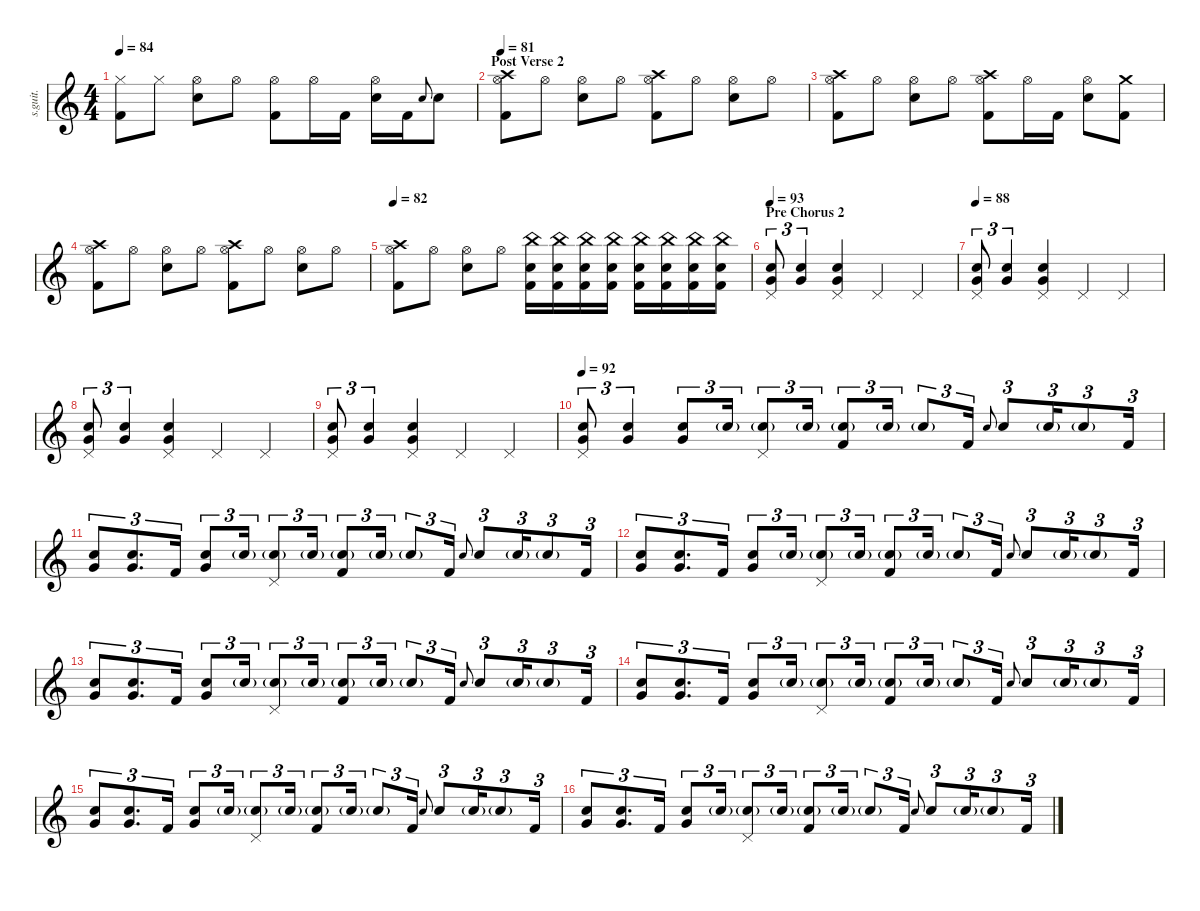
\defaultSystemsLayout 4
\hideDynamics
\bracketExtendMode nobrackets
\track ("Brad Wilk - Drums" "s.guit.") {instrument percussion}
\staff {score}
\articulation defaults
\ts (4 4)
\tempo 84
\clef g2
\ks c
("Hi-Hat (closed)" "Kick (hit) 2").8{lyrics (0 "") lyrics (1 "") lyrics (2 "") lyrics (3 "") lyrics (4 "") dy f} "Hi-Hat (closed)".8{lyrics (0 "") lyrics (1 "") lyrics (2 "") lyrics (3 "") lyrics (4 "")} ("Hi-Hat (open)" "Snare (hit) 2").8{lyrics (0 "") lyrics (1 "") lyrics (2 "") lyrics (3 "") lyrics (4 "")} "Hi-Hat (open)".8{lyrics (0 "") lyrics (1 "") lyrics (2 "") lyrics (3 "") lyrics (4 "")} ("Hi-Hat (open)" "Kick (hit) 2").8{lyrics (0 "") lyrics (1 "") lyrics (2 "") lyrics (3 "") lyrics (4 "")} "Hi-Hat (open)".16{lyrics (0 "") lyrics (1 "") lyrics (2 "") lyrics (3 "") lyrics (4 "")} "Kick (hit) 2".16{lyrics (0 "") lyrics (1 "") lyrics (2 "") lyrics (3 "") lyrics (4 "")} ("Hi-Hat (open)" "Snare (hit) 2").16{lyrics (0 "") lyrics (1 "") lyrics (2 "") lyrics (3 "") lyrics (4 "")} "Kick (hit) 2".16{lyrics (0 "") lyrics (1 "") lyrics (2 "") lyrics (3 "") lyrics (4 "")} "Snare (hit) 2".8{lyrics (0 "") lyrics (1 "") lyrics (2 "") lyrics (3 "") lyrics (4 "") gr onbeat} "Snare (hit) 2".8{lyrics (0 "") lyrics (1 "") lyrics (2 "") lyrics (3 "") lyrics (4 "")} |
\section ("" "Post Verse 2")
\tempo 81
("Crash high (hit)" "Hi-Hat (open)" "Kick (hit) 2").8{lyrics (0 "") lyrics (1 "") lyrics (2 "") lyrics (3 "") lyrics (4 "")} "Hi-Hat (open)".8{lyrics (0 "") lyrics (1 "") lyrics (2 "") lyrics (3 "") lyrics (4 "")} ("Hi-Hat (open)" "Snare (hit) 2").8{lyrics (0 "") lyrics (1 "") lyrics (2 "") lyrics (3 "") lyrics (4 "")} "Hi-Hat (open)".8{lyrics (0 "") lyrics (1 "") lyrics (2 "") lyrics (3 "") lyrics (4 "")} ("Crash high (hit)" "Hi-Hat (open)" "Kick (hit) 2").8{lyrics (0 "") lyrics (1 "") lyrics (2 "") lyrics (3 "") lyrics (4 "")} "Hi-Hat (open)".8{lyrics (0 "") lyrics (1 "") lyrics (2 "") lyrics (3 "") lyrics (4 "")} ("Hi-Hat (open)" "Snare (hit) 2").8{lyrics (0 "") lyrics (1 "") lyrics (2 "") lyrics (3 "") lyrics (4 "")} "Hi-Hat (open)".8{lyrics (0 "") lyrics (1 "") lyrics (2 "") lyrics (3 "") lyrics (4 "")} |
("Crash high (hit)" "Hi-Hat (open)" "Kick (hit) 2").8{lyrics (0 "") lyrics (1 "") lyrics (2 "") lyrics (3 "") lyrics (4 "")} "Hi-Hat (open)".8{lyrics (0 "") lyrics (1 "") lyrics (2 "") lyrics (3 "") lyrics (4 "")} ("Hi-Hat (open)" "Snare (hit) 2").8{lyrics (0 "") lyrics (1 "") lyrics (2 "") lyrics (3 "") lyrics (4 "")} "Hi-Hat (open)".8{lyrics (0 "") lyrics (1 "") lyrics (2 "") lyrics (3 "") lyrics (4 "")} ("Crash high (hit)" "Hi-Hat (open)" "Kick (hit) 2").8{lyrics (0 "") lyrics (1 "") lyrics (2 "") lyrics (3 "") lyrics (4 "")} "Hi-Hat (open)".16{lyrics (0 "") lyrics (1 "") lyrics (2 "") lyrics (3 "") lyrics (4 "")} "Kick (hit) 2".16{lyrics (0 "") lyrics (1 "") lyrics (2 "") lyrics (3 "") lyrics (4 "")} ("Hi-Hat (open)" "Snare (hit) 2").8{lyrics (0 "") lyrics (1 "") lyrics (2 "") lyrics (3 "") lyrics (4 "")} ("Crash medium (hit)" "Kick (hit) 2").8{lyrics (0 "") lyrics (1 "") lyrics (2 "") lyrics (3 "") lyrics (4 "")} |
("Crash high (hit)" "Hi-Hat (open)" "Kick (hit) 2").8{lyrics (0 "") lyrics (1 "") lyrics (2 "") lyrics (3 "") lyrics (4 "")} "Hi-Hat (open)".8{lyrics (0 "") lyrics (1 "") lyrics (2 "") lyrics (3 "") lyrics (4 "")} ("Hi-Hat (open)" "Snare (hit) 2").8{lyrics (0 "") lyrics (1 "") lyrics (2 "") lyrics (3 "") lyrics (4 "")} "Hi-Hat (open)".8{lyrics (0 "") lyrics (1 "") lyrics (2 "") lyrics (3 "") lyrics (4 "")} ("Crash high (hit)" "Hi-Hat (open)" "Kick (hit) 2").8{lyrics (0 "") lyrics (1 "") lyrics (2 "") lyrics (3 "") lyrics (4 "")} "Hi-Hat (open)".8{lyrics (0 "") lyrics (1 "") lyrics (2 "") lyrics (3 "") lyrics (4 "")} ("Hi-Hat (open)" "Snare (hit) 2").8{lyrics (0 "") lyrics (1 "") lyrics (2 "") lyrics (3 "") lyrics (4 "")} "Hi-Hat (open)".8{lyrics (0 "") lyrics (1 "") lyrics (2 "") lyrics (3 "") lyrics (4 "")} |
\tempo 82
("Crash high (hit)" "Hi-Hat (open)" "Kick (hit) 2").8{lyrics (0 "") lyrics (1 "") lyrics (2 "") lyrics (3 "") lyrics (4 "")} "Hi-Hat (open)".8{lyrics (0 "") lyrics (1 "") lyrics (2 "") lyrics (3 "") lyrics (4 "")} ("Hi-Hat (open)" "Snare (hit) 2").8{lyrics (0 "") lyrics (1 "") lyrics (2 "") lyrics (3 "") lyrics (4 "")} "Hi-Hat (open)".8{lyrics (0 "") lyrics (1 "") lyrics (2 "") lyrics (3 "") lyrics (4 "")} ("Snare (hit) 2" "Kick (hit) 2" "China (hit)").16{lyrics (0 "") lyrics (1 "") lyrics (2 "") lyrics (3 "") lyrics (4 "")} ("Snare (hit) 2" "Kick (hit) 2" "China (hit)").16{lyrics (0 "") lyrics (1 "") lyrics (2 "") lyrics (3 "") lyrics (4 "") dy mp} ("Snare (hit) 2" "Kick (hit) 2" "China (hit)").16{lyrics (0 "") lyrics (1 "") lyrics (2 "") lyrics (3 "") lyrics (4 "")} ("Snare (hit) 2" "Kick (hit) 2" "China (hit)").16{lyrics (0 "") lyrics (1 "") lyrics (2 "") lyrics (3 "") lyrics (4 "")} ("Snare (hit) 2" "Kick (hit) 2" "China (hit)").16{lyrics (0 "") lyrics (1 "") lyrics (2 "") lyrics (3 "") lyrics (4 "")} ("Snare (hit) 2" "Kick (hit) 2" "China (hit)").16{lyrics (0 "") lyrics (1 "") lyrics (2 "") lyrics (3 "") lyrics (4 "")} ("Snare (hit) 2" "Kick (hit) 2" "China (hit)").16{lyrics (0 "") lyrics (1 "") lyrics (2 "") lyrics (3 "") lyrics (4 "")} ("Snare (hit) 2" "Kick (hit) 2" "China (hit)").16{lyrics (0 "") lyrics (1 "") lyrics (2 "") lyrics (3 "") lyrics (4 "")} |
\section ("" "Pre Chorus 2")
\tempo 93
("Very Low Tom (hit)" "Snare (hit) 2" "Pedal Hi-Hat (hit)").8{tu (3 2) lyrics (0 "") lyrics (1 "") lyrics (2 "") lyrics (3 "") lyrics (4 "")} ("Very Low Tom (hit)" "Snare (hit) 2").4{tu (3 2) lyrics (0 "") lyrics (1 "") lyrics (2 "") lyrics (3 "") lyrics (4 "")} ("Very Low Tom (hit)" "Snare (hit) 2" "Pedal Hi-Hat (hit)").4{lyrics (0 "") lyrics (1 "") lyrics (2 "") lyrics (3 "") lyrics (4 "")} "Pedal Hi-Hat (hit)".4{lyrics (0 "") lyrics (1 "") lyrics (2 "") lyrics (3 "") lyrics (4 "")} "Pedal Hi-Hat (hit)".4{lyrics (0 "") lyrics (1 "") lyrics (2 "") lyrics (3 "") lyrics (4 "")} |
\tempo 88
("Very Low Tom (hit)" "Snare (hit) 2" "Pedal Hi-Hat (hit)").8{tu (3 2) lyrics (0 "") lyrics (1 "") lyrics (2 "") lyrics (3 "") lyrics (4 "")} ("Very Low Tom (hit)" "Snare (hit) 2").4{tu (3 2) lyrics (0 "") lyrics (1 "") lyrics (2 "") lyrics (3 "") lyrics (4 "")} ("Very Low Tom (hit)" "Snare (hit) 2" "Pedal Hi-Hat (hit)").4{lyrics (0 "") lyrics (1 "") lyrics (2 "") lyrics (3 "") lyrics (4 "")} "Pedal Hi-Hat (hit)".4{lyrics (0 "") lyrics (1 "") lyrics (2 "") lyrics (3 "") lyrics (4 "")} "Pedal Hi-Hat (hit)".4{lyrics (0 "") lyrics (1 "") lyrics (2 "") lyrics (3 "") lyrics (4 "")} |
("Very Low Tom (hit)" "Snare (hit) 2" "Pedal Hi-Hat (hit)").8{tu (3 2) lyrics (0 "") lyrics (1 "") lyrics (2 "") lyrics (3 "") lyrics (4 "")} ("Very Low Tom (hit)" "Snare (hit) 2").4{tu (3 2) lyrics (0 "") lyrics (1 "") lyrics (2 "") lyrics (3 "") lyrics (4 "")} ("Very Low Tom (hit)" "Snare (hit) 2" "Pedal Hi-Hat (hit)").4{lyrics (0 "") lyrics (1 "") lyrics (2 "") lyrics (3 "") lyrics (4 "")} "Pedal Hi-Hat (hit)".4{lyrics (0 "") lyrics (1 "") lyrics (2 "") lyrics (3 "") lyrics (4 "")} "Pedal Hi-Hat (hit)".4{lyrics (0 "") lyrics (1 "") lyrics (2 "") lyrics (3 "") lyrics (4 "")} |
("Very Low Tom (hit)" "Snare (hit) 2" "Pedal Hi-Hat (hit)").8{tu (3 2) lyrics (0 "") lyrics (1 "") lyrics (2 "") lyrics (3 "") lyrics (4 "")} ("Very Low Tom (hit)" "Snare (hit) 2").4{tu (3 2) lyrics (0 "") lyrics (1 "") lyrics (2 "") lyrics (3 "") lyrics (4 "")} ("Very Low Tom (hit)" "Snare (hit) 2" "Pedal Hi-Hat (hit)").4{lyrics (0 "") lyrics (1 "") lyrics (2 "") lyrics (3 "") lyrics (4 "")} "Pedal Hi-Hat (hit)".4{lyrics (0 "") lyrics (1 "") lyrics (2 "") lyrics (3 "") lyrics (4 "")} "Pedal Hi-Hat (hit)".4{lyrics (0 "") lyrics (1 "") lyrics (2 "") lyrics (3 "") lyrics (4 "")} |
\tempo 92
("Very Low Tom (hit)" "Snare (hit) 2" "Pedal Hi-Hat (hit)").8{tu (3 2) lyrics (0 "") lyrics (1 "") lyrics (2 "") lyrics (3 "") lyrics (4 "")} ("Very Low Tom (hit)" "Snare (hit) 2").4{tu (3 2) lyrics (0 "") lyrics (1 "") lyrics (2 "") lyrics (3 "") lyrics (4 "")} ("Very Low Tom (hit)" "Snare (hit) 2").8{tu (3 2) lyrics (0 "") lyrics (1 "") lyrics (2 "") lyrics (3 "") lyrics (4 "")} "Snare (hit) 2"{g}.16{tu (3 2) lyrics (0 "") lyrics (1 "") lyrics (2 "") lyrics (3 "") lyrics (4 "")} ("Snare (hit) 2"{g} "Pedal Hi-Hat (hit)").8{tu (3 2) lyrics (0 "") lyrics (1 "") lyrics (2 "") lyrics (3 "") lyrics (4 "")} "Snare (hit) 2"{g}.16{tu (3 2) lyrics (0 "") lyrics (1 "") lyrics (2 "") lyrics (3 "") lyrics (4 "")} ("Snare (hit) 2"{g} "Kick (hit) 2").8{tu (3 2) lyrics (0 "") lyrics (1 "") lyrics (2 "") lyrics (3 "") lyrics (4 "") dy f} "Snare (hit) 2"{g}.16{tu (3 2) lyrics (0 "") lyrics (1 "") lyrics (2 "") lyrics (3 "") lyrics (4 "") dy mp} "Snare (hit) 2"{g}.8{tu (3 2) lyrics (0 "") lyrics (1 "") lyrics (2 "") lyrics (3 "") lyrics (4 "")} "Kick (hit) 2".16{tu (3 2) lyrics (0 "") lyrics (1 "") lyrics (2 "") lyrics (3 "") lyrics (4 "") dy f} "Snare (hit) 2".8{tu (3 2) lyrics (0 "") lyrics (1 "") lyrics (2 "") lyrics (3 "") lyrics (4 "") gr onbeat} "Snare (hit) 2".8{tu (3 2) lyrics (0 "") lyrics (1 "") lyrics (2 "") lyrics (3 "") lyrics (4 "")} "Snare (hit) 2"{g}.16{tu (3 2) lyrics (0 "") lyrics (1 "") lyrics (2 "") lyrics (3 "") lyrics (4 "") dy mp} "Snare (hit) 2"{g}.8{tu (3 2) lyrics (0 "") lyrics (1 "") lyrics (2 "") lyrics (3 "") lyrics (4 "") dy mf} "Kick (hit) 2".16{tu (3 2) lyrics (0 "") lyrics (1 "") lyrics (2 "") lyrics (3 "") lyrics (4 "") dy f} |
("Very Low Tom (hit)" "Snare (hit) 2").8{tu (3 2) lyrics (0 "") lyrics (1 "") lyrics (2 "") lyrics (3 "") lyrics (4 "")} ("Very Low Tom (hit)" "Snare (hit) 2").8{d tu (3 2) lyrics (0 "") lyrics (1 "") lyrics (2 "") lyrics (3 "") lyrics (4 "")} "Kick (hit) 2".16{tu (3 2) lyrics (0 "") lyrics (1 "") lyrics (2 "") lyrics (3 "") lyrics (4 "")} ("Very Low Tom (hit)" "Snare (hit) 2").8{tu (3 2) lyrics (0 "") lyrics (1 "") lyrics (2 "") lyrics (3 "") lyrics (4 "")} "Snare (hit) 2"{g}.16{tu (3 2) lyrics (0 "") lyrics (1 "") lyrics (2 "") lyrics (3 "") lyrics (4 "") dy mp} ("Snare (hit) 2"{g} "Pedal Hi-Hat (hit)").8{tu (3 2) lyrics (0 "") lyrics (1 "") lyrics (2 "") lyrics (3 "") lyrics (4 "")} "Snare (hit) 2"{g}.16{tu (3 2) lyrics (0 "") lyrics (1 "") lyrics (2 "") lyrics (3 "") lyrics (4 "")} ("Snare (hit) 2"{g} "Kick (hit) 2").8{tu (3 2) lyrics (0 "") lyrics (1 "") lyrics (2 "") lyrics (3 "") lyrics (4 "") dy f} "Snare (hit) 2"{g}.16{tu (3 2) lyrics (0 "") lyrics (1 "") lyrics (2 "") lyrics (3 "") lyrics (4 "") dy mp} "Snare (hit) 2"{g}.8{tu (3 2) lyrics (0 "") lyrics (1 "") lyrics (2 "") lyrics (3 "") lyrics (4 "")} "Kick (hit) 2".16{tu (3 2) lyrics (0 "") lyrics (1 "") lyrics (2 "") lyrics (3 "") lyrics (4 "") dy f} "Snare (hit) 2".8{tu (3 2) lyrics (0 "") lyrics (1 "") lyrics (2 "") lyrics (3 "") lyrics (4 "") gr onbeat} "Snare (hit) 2".8{tu (3 2) lyrics (0 "") lyrics (1 "") lyrics (2 "") lyrics (3 "") lyrics (4 "")} "Snare (hit) 2"{g}.16{tu (3 2) lyrics (0 "") lyrics (1 "") lyrics (2 "") lyrics (3 "") lyrics (4 "") dy mp} "Snare (hit) 2"{g}.8{tu (3 2) lyrics (0 "") lyrics (1 "") lyrics (2 "") lyrics (3 "") lyrics (4 "") dy mf} "Kick (hit) 2".16{tu (3 2) lyrics (0 "") lyrics (1 "") lyrics (2 "") lyrics (3 "") lyrics (4 "") dy f} |
("Very Low Tom (hit)" "Snare (hit) 2").8{tu (3 2) lyrics (0 "") lyrics (1 "") lyrics (2 "") lyrics (3 "") lyrics (4 "")} ("Very Low Tom (hit)" "Snare (hit) 2").8{d tu (3 2) lyrics (0 "") lyrics (1 "") lyrics (2 "") lyrics (3 "") lyrics (4 "")} "Kick (hit) 2".16{tu (3 2) lyrics (0 "") lyrics (1 "") lyrics (2 "") lyrics (3 "") lyrics (4 "")} ("Very Low Tom (hit)" "Snare (hit) 2").8{tu (3 2) lyrics (0 "") lyrics (1 "") lyrics (2 "") lyrics (3 "") lyrics (4 "")} "Snare (hit) 2"{g}.16{tu (3 2) lyrics (0 "") lyrics (1 "") lyrics (2 "") lyrics (3 "") lyrics (4 "") dy mp} ("Snare (hit) 2"{g} "Pedal Hi-Hat (hit)").8{tu (3 2) lyrics (0 "") lyrics (1 "") lyrics (2 "") lyrics (3 "") lyrics (4 "")} "Snare (hit) 2"{g}.16{tu (3 2) lyrics (0 "") lyrics (1 "") lyrics (2 "") lyrics (3 "") lyrics (4 "")} ("Snare (hit) 2"{g} "Kick (hit) 2").8{tu (3 2) lyrics (0 "") lyrics (1 "") lyrics (2 "") lyrics (3 "") lyrics (4 "") dy f} "Snare (hit) 2"{g}.16{tu (3 2) lyrics (0 "") lyrics (1 "") lyrics (2 "") lyrics (3 "") lyrics (4 "") dy mp} "Snare (hit) 2"{g}.8{tu (3 2) lyrics (0 "") lyrics (1 "") lyrics (2 "") lyrics (3 "") lyrics (4 "")} "Kick (hit) 2".16{tu (3 2) lyrics (0 "") lyrics (1 "") lyrics (2 "") lyrics (3 "") lyrics (4 "") dy f} "Snare (hit) 2".8{tu (3 2) lyrics (0 "") lyrics (1 "") lyrics (2 "") lyrics (3 "") lyrics (4 "") gr onbeat} "Snare (hit) 2".8{tu (3 2) lyrics (0 "") lyrics (1 "") lyrics (2 "") lyrics (3 "") lyrics (4 "")} "Snare (hit) 2"{g}.16{tu (3 2) lyrics (0 "") lyrics (1 "") lyrics (2 "") lyrics (3 "") lyrics (4 "") dy mp} "Snare (hit) 2"{g}.8{tu (3 2) lyrics (0 "") lyrics (1 "") lyrics (2 "") lyrics (3 "") lyrics (4 "") dy mf} "Kick (hit) 2".16{tu (3 2) lyrics (0 "") lyrics (1 "") lyrics (2 "") lyrics (3 "") lyrics (4 "") dy f} |
("Very Low Tom (hit)" "Snare (hit) 2").8{tu (3 2) lyrics (0 "") lyrics (1 "") lyrics (2 "") lyrics (3 "") lyrics (4 "")} ("Very Low Tom (hit)" "Snare (hit) 2").8{d tu (3 2) lyrics (0 "") lyrics (1 "") lyrics (2 "") lyrics (3 "") lyrics (4 "")} "Kick (hit) 2".16{tu (3 2) lyrics (0 "") lyrics (1 "") lyrics (2 "") lyrics (3 "") lyrics (4 "")} ("Very Low Tom (hit)" "Snare (hit) 2").8{tu (3 2) lyrics (0 "") lyrics (1 "") lyrics (2 "") lyrics (3 "") lyrics (4 "")} "Snare (hit) 2"{g}.16{tu (3 2) lyrics (0 "") lyrics (1 "") lyrics (2 "") lyrics (3 "") lyrics (4 "") dy mp} ("Snare (hit) 2"{g} "Pedal Hi-Hat (hit)").8{tu (3 2) lyrics (0 "") lyrics (1 "") lyrics (2 "") lyrics (3 "") lyrics (4 "")} "Snare (hit) 2"{g}.16{tu (3 2) lyrics (0 "") lyrics (1 "") lyrics (2 "") lyrics (3 "") lyrics (4 "")} ("Snare (hit) 2"{g} "Kick (hit) 2").8{tu (3 2) lyrics (0 "") lyrics (1 "") lyrics (2 "") lyrics (3 "") lyrics (4 "") dy f} "Snare (hit) 2"{g}.16{tu (3 2) lyrics (0 "") lyrics (1 "") lyrics (2 "") lyrics (3 "") lyrics (4 "") dy mp} "Snare (hit) 2"{g}.8{tu (3 2) lyrics (0 "") lyrics (1 "") lyrics (2 "") lyrics (3 "") lyrics (4 "")} "Kick (hit) 2".16{tu (3 2) lyrics (0 "") lyrics (1 "") lyrics (2 "") lyrics (3 "") lyrics (4 "") dy f} "Snare (hit) 2".8{tu (3 2) lyrics (0 "") lyrics (1 "") lyrics (2 "") lyrics (3 "") lyrics (4 "") gr onbeat} "Snare (hit) 2".8{tu (3 2) lyrics (0 "") lyrics (1 "") lyrics (2 "") lyrics (3 "") lyrics (4 "")} "Snare (hit) 2"{g}.16{tu (3 2) lyrics (0 "") lyrics (1 "") lyrics (2 "") lyrics (3 "") lyrics (4 "") dy mp} "Snare (hit) 2"{g}.8{tu (3 2) lyrics (0 "") lyrics (1 "") lyrics (2 "") lyrics (3 "") lyrics (4 "") dy mf} "Kick (hit) 2".16{tu (3 2) lyrics (0 "") lyrics (1 "") lyrics (2 "") lyrics (3 "") lyrics (4 "") dy f} |
("Very Low Tom (hit)" "Snare (hit) 2").8{tu (3 2) lyrics (0 "") lyrics (1 "") lyrics (2 "") lyrics (3 "") lyrics (4 "")} ("Very Low Tom (hit)" "Snare (hit) 2").8{d tu (3 2) lyrics (0 "") lyrics (1 "") lyrics (2 "") lyrics (3 "") lyrics (4 "")} "Kick (hit) 2".16{tu (3 2) lyrics (0 "") lyrics (1 "") lyrics (2 "") lyrics (3 "") lyrics (4 "")} ("Very Low Tom (hit)" "Snare (hit) 2").8{tu (3 2) lyrics (0 "") lyrics (1 "") lyrics (2 "") lyrics (3 "") lyrics (4 "")} "Snare (hit) 2"{g}.16{tu (3 2) lyrics (0 "") lyrics (1 "") lyrics (2 "") lyrics (3 "") lyrics (4 "") dy mp} ("Snare (hit) 2"{g} "Pedal Hi-Hat (hit)").8{tu (3 2) lyrics (0 "") lyrics (1 "") lyrics (2 "") lyrics (3 "") lyrics (4 "")} "Snare (hit) 2"{g}.16{tu (3 2) lyrics (0 "") lyrics (1 "") lyrics (2 "") lyrics (3 "") lyrics (4 "")} ("Snare (hit) 2"{g} "Kick (hit) 2").8{tu (3 2) lyrics (0 "") lyrics (1 "") lyrics (2 "") lyrics (3 "") lyrics (4 "") dy f} "Snare (hit) 2"{g}.16{tu (3 2) lyrics (0 "") lyrics (1 "") lyrics (2 "") lyrics (3 "") lyrics (4 "") dy mp} "Snare (hit) 2"{g}.8{tu (3 2) lyrics (0 "") lyrics (1 "") lyrics (2 "") lyrics (3 "") lyrics (4 "")} "Kick (hit) 2".16{tu (3 2) lyrics (0 "") lyrics (1 "") lyrics (2 "") lyrics (3 "") lyrics (4 "") dy f} "Snare (hit) 2".8{tu (3 2) lyrics (0 "") lyrics (1 "") lyrics (2 "") lyrics (3 "") lyrics (4 "") gr onbeat} "Snare (hit) 2".8{tu (3 2) lyrics (0 "") lyrics (1 "") lyrics (2 "") lyrics (3 "") lyrics (4 "")} "Snare (hit) 2"{g}.16{tu (3 2) lyrics (0 "") lyrics (1 "") lyrics (2 "") lyrics (3 "") lyrics (4 "") dy mp} "Snare (hit) 2"{g}.8{tu (3 2) lyrics (0 "") lyrics (1 "") lyrics (2 "") lyrics (3 "") lyrics (4 "") dy mf} "Kick (hit) 2".16{tu (3 2) lyrics (0 "") lyrics (1 "") lyrics (2 "") lyrics (3 "") lyrics (4 "") dy f} |
("Very Low Tom (hit)" "Snare (hit) 2").8{tu (3 2) lyrics (0 "") lyrics (1 "") lyrics (2 "") lyrics (3 "") lyrics (4 "")} ("Very Low Tom (hit)" "Snare (hit) 2").8{d tu (3 2) lyrics (0 "") lyrics (1 "") lyrics (2 "") lyrics (3 "") lyrics (4 "")} "Kick (hit) 2".16{tu (3 2) lyrics (0 "") lyrics (1 "") lyrics (2 "") lyrics (3 "") lyrics (4 "")} ("Very Low Tom (hit)" "Snare (hit) 2").8{tu (3 2) lyrics (0 "") lyrics (1 "") lyrics (2 "") lyrics (3 "") lyrics (4 "")} "Snare (hit) 2"{g}.16{tu (3 2) lyrics (0 "") lyrics (1 "") lyrics (2 "") lyrics (3 "") lyrics (4 "") dy mp} ("Snare (hit) 2"{g} "Pedal Hi-Hat (hit)").8{tu (3 2) lyrics (0 "") lyrics (1 "") lyrics (2 "") lyrics (3 "") lyrics (4 "")} "Snare (hit) 2"{g}.16{tu (3 2) lyrics (0 "") lyrics (1 "") lyrics (2 "") lyrics (3 "") lyrics (4 "")} ("Snare (hit) 2"{g} "Kick (hit) 2").8{tu (3 2) lyrics (0 "") lyrics (1 "") lyrics (2 "") lyrics (3 "") lyrics (4 "") dy f} "Snare (hit) 2"{g}.16{tu (3 2) lyrics (0 "") lyrics (1 "") lyrics (2 "") lyrics (3 "") lyrics (4 "") dy mp} "Snare (hit) 2"{g}.8{tu (3 2) lyrics (0 "") lyrics (1 "") lyrics (2 "") lyrics (3 "") lyrics (4 "")} "Kick (hit) 2".16{tu (3 2) lyrics (0 "") lyrics (1 "") lyrics (2 "") lyrics (3 "") lyrics (4 "") dy f} "Snare (hit) 2".8{tu (3 2) lyrics (0 "") lyrics (1 "") lyrics (2 "") lyrics (3 "") lyrics (4 "") gr onbeat} "Snare (hit) 2".8{tu (3 2) lyrics (0 "") lyrics (1 "") lyrics (2 "") lyrics (3 "") lyrics (4 "")} "Snare (hit) 2"{g}.16{tu (3 2) lyrics (0 "") lyrics (1 "") lyrics (2 "") lyrics (3 "") lyrics (4 "") dy mp} "Snare (hit) 2"{g}.8{tu (3 2) lyrics (0 "") lyrics (1 "") lyrics (2 "") lyrics (3 "") lyrics (4 "") dy mf} "Kick (hit) 2".16{tu (3 2) lyrics (0 "") lyrics (1 "") lyrics (2 "") lyrics (3 "") lyrics (4 "") dy f} |
("Very Low Tom (hit)" "Snare (hit) 2").8{tu (3 2) lyrics (0 "") lyrics (1 "") lyrics (2 "") lyrics (3 "") lyrics (4 "")} ("Very Low Tom (hit)" "Snare (hit) 2").8{d tu (3 2) lyrics (0 "") lyrics (1 "") lyrics (2 "") lyrics (3 "") lyrics (4 "")} "Kick (hit) 2".16{tu (3 2) lyrics (0 "") lyrics (1 "") lyrics (2 "") lyrics (3 "") lyrics (4 "")} ("Very Low Tom (hit)" "Snare (hit) 2").8{tu (3 2) lyrics (0 "") lyrics (1 "") lyrics (2 "") lyrics (3 "") lyrics (4 "")} "Snare (hit) 2"{g}.16{tu (3 2) lyrics (0 "") lyrics (1 "") lyrics (2 "") lyrics (3 "") lyrics (4 "") dy mp} ("Snare (hit) 2"{g} "Pedal Hi-Hat (hit)").8{tu (3 2) lyrics (0 "") lyrics (1 "") lyrics (2 "") lyrics (3 "") lyrics (4 "")} "Snare (hit) 2"{g}.16{tu (3 2) lyrics (0 "") lyrics (1 "") lyrics (2 "") lyrics (3 "") lyrics (4 "")} ("Snare (hit) 2"{g} "Kick (hit) 2").8{tu (3 2) lyrics (0 "") lyrics (1 "") lyrics (2 "") lyrics (3 "") lyrics (4 "") dy f} "Snare (hit) 2"{g}.16{tu (3 2) lyrics (0 "") lyrics (1 "") lyrics (2 "") lyrics (3 "") lyrics (4 "") dy mp} "Snare (hit) 2"{g}.8{tu (3 2) lyrics (0 "") lyrics (1 "") lyrics (2 "") lyrics (3 "") lyrics (4 "")} "Kick (hit) 2".16{tu (3 2) lyrics (0 "") lyrics (1 "") lyrics (2 "") lyrics (3 "") lyrics (4 "") dy f} "Snare (hit) 2".8{tu (3 2) lyrics (0 "") lyrics (1 "") lyrics (2 "") lyrics (3 "") lyrics (4 "") gr onbeat} "Snare (hit) 2".8{tu (3 2) lyrics (0 "") lyrics (1 "") lyrics (2 "") lyrics (3 "") lyrics (4 "")} "Snare (hit) 2"{g}.16{tu (3 2) lyrics (0 "") lyrics (1 "") lyrics (2 "") lyrics (3 "") lyrics (4 "") dy mp} "Snare (hit) 2"{g}.8{tu (3 2) lyrics (0 "") lyrics (1 "") lyrics (2 "") lyrics (3 "") lyrics (4 "") dy mf} "Kick (hit) 2".16{tu (3 2) lyrics (0 "") lyrics (1 "") lyrics (2 "") lyrics (3 "") lyrics (4 "") dy f}
